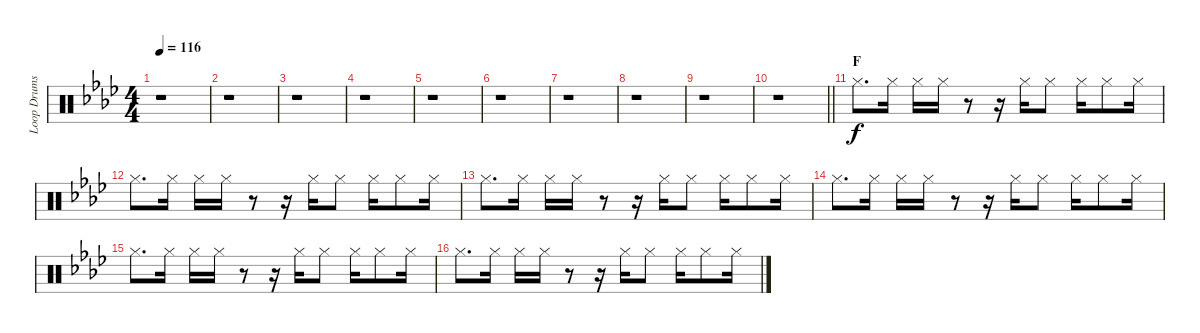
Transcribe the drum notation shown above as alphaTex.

\track ("Loop Drums II" "Loop Drums") {instrument percussion}
\staff {score}
\articulation defaults
\ts (4 4)
\tempo 116
\clef neutral
\ks ab
r.1{dy f} |
r.1 |
r.1 |
r.1 |
r.1 |
r.1 |
r.1 |
r.1 |
r.1 |
\barLineRight lightlight
r.1 |
\section ("" "F")
"Hi-Hat (closed)".8{d} "Hi-Hat (closed)".16 "Hi-Hat (closed)".16 "Hi-Hat (closed)".16 r.8 r.16 "Hi-Hat (closed)".16 "Hi-Hat (closed)".8 "Hi-Hat (closed)".16 "Hi-Hat (closed)".8 "Hi-Hat (closed)".16 |
"Hi-Hat (closed)".8{d} "Hi-Hat (closed)".16 "Hi-Hat (closed)".16 "Hi-Hat (closed)".16 r.8 r.16 "Hi-Hat (closed)".16 "Hi-Hat (closed)".8 "Hi-Hat (closed)".16 "Hi-Hat (closed)".8 "Hi-Hat (closed)".16 |
"Hi-Hat (closed)".8{d} "Hi-Hat (closed)".16 "Hi-Hat (closed)".16 "Hi-Hat (closed)".16 r.8 r.16 "Hi-Hat (closed)".16 "Hi-Hat (closed)".8 "Hi-Hat (closed)".16 "Hi-Hat (closed)".8 "Hi-Hat (closed)".16 |
"Hi-Hat (closed)".8{d} "Hi-Hat (closed)".16 "Hi-Hat (closed)".16 "Hi-Hat (closed)".16 r.8 r.16 "Hi-Hat (closed)".16 "Hi-Hat (closed)".8 "Hi-Hat (closed)".16 "Hi-Hat (closed)".8 "Hi-Hat (closed)".16 |
"Hi-Hat (closed)".8{d} "Hi-Hat (closed)".16 "Hi-Hat (closed)".16 "Hi-Hat (closed)".16 r.8 r.16 "Hi-Hat (closed)".16 "Hi-Hat (closed)".8 "Hi-Hat (closed)".16 "Hi-Hat (closed)".8 "Hi-Hat (closed)".16 |
"Hi-Hat (closed)".8{d} "Hi-Hat (closed)".16 "Hi-Hat (closed)".16 "Hi-Hat (closed)".16 r.8 r.16 "Hi-Hat (closed)".16 "Hi-Hat (closed)".8 "Hi-Hat (closed)".16 "Hi-Hat (closed)".8 "Hi-Hat (closed)".16
